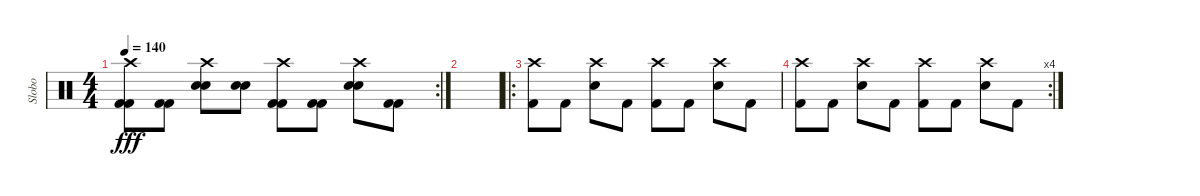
\track ("Slobo" "Slobo") {instrument percussion}
\staff {score}
\articulation defaults
\rc 2
\ts (4 4)
\tempo 140
\clef neutral
\ks c
("Crash high (hit)" "Kick (hit) 2" "Kick (hit) 2").8{dy fff} ("Kick (hit) 2" "Kick (hit) 2").8 ("Crash high (hit)" "Snare (hit) 2" "Snare (hit) 2").8 ("Snare (hit) 2" "Snare (hit) 2").8 ("Crash high (hit)" "Kick (hit) 2" "Kick (hit) 2").8 ("Kick (hit) 2" "Kick (hit) 2").8 ("Crash high (hit)" "Snare (hit) 2" "Snare (hit) 2").8 ("Kick (hit) 2" "Kick (hit) 2").8 |
|
\ro
("Crash high (hit)" "Kick (hit) 2").8 "Kick (hit) 2".8 ("Crash high (hit)" "Snare (hit) 2").8 "Kick (hit) 2".8 ("Crash high (hit)" "Kick (hit) 2").8 "Kick (hit) 2".8 ("Crash high (hit)" "Snare (hit) 2").8 "Kick (hit) 2".8 |
\rc 4
("Crash high (hit)" "Kick (hit) 2").8 "Kick (hit) 2".8 ("Crash high (hit)" "Snare (hit) 2").8 "Kick (hit) 2".8 ("Crash high (hit)" "Kick (hit) 2").8 "Kick (hit) 2".8 ("Crash high (hit)" "Snare (hit) 2").8 "Kick (hit) 2".8
